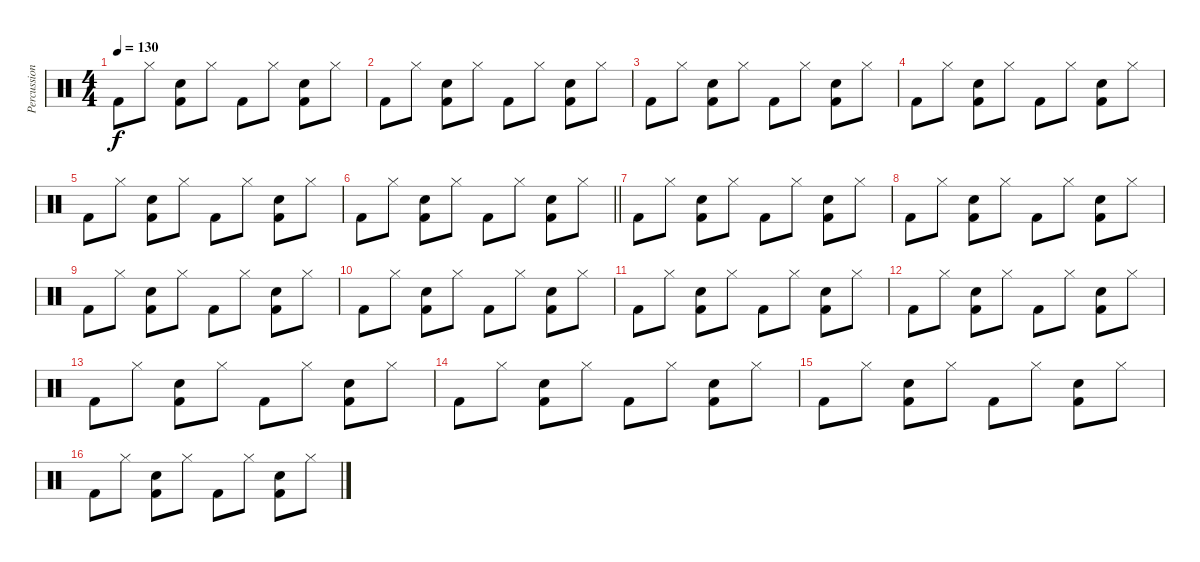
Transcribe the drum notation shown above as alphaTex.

\track ("Percussion" "Percussion") {instrument percussion}
\staff {score}
\articulation defaults
\ts (4 4)
\tempo 130
\clef neutral
\ks c "Kick (hit) 2".8{dy f} "Hi-Hat (closed)".8
("Electric Snare (hit)" "Kick (hit) 2").8 "Hi-Hat (closed)".8 "Kick (hit) 2".8 "Hi-Hat (closed)".8 ("Electric Snare (hit)" "Kick (hit) 2").8 "Hi-Hat (closed)".8 |
"Kick (hit) 2".8 "Hi-Hat (closed)".8 ("Electric Snare (hit)" "Kick (hit) 2").8 "Hi-Hat (closed)".8 "Kick (hit) 2".8 "Hi-Hat (closed)".8 ("Electric Snare (hit)" "Kick (hit) 2").8 "Hi-Hat (closed)".8 |
"Kick (hit) 2".8 "Hi-Hat (closed)".8 ("Electric Snare (hit)" "Kick (hit) 2").8 "Hi-Hat (closed)".8 "Kick (hit) 2".8 "Hi-Hat (closed)".8 ("Electric Snare (hit)" "Kick (hit) 2").8 "Hi-Hat (closed)".8 |
"Kick (hit) 2".8 "Hi-Hat (closed)".8 ("Electric Snare (hit)" "Kick (hit) 2").8 "Hi-Hat (closed)".8 "Kick (hit) 2".8 "Hi-Hat (closed)".8 ("Electric Snare (hit)" "Kick (hit) 2").8 "Hi-Hat (closed)".8 |
"Kick (hit) 2".8 "Hi-Hat (closed)".8 ("Electric Snare (hit)" "Kick (hit) 2").8 "Hi-Hat (closed)".8 "Kick (hit) 2".8 "Hi-Hat (closed)".8 ("Electric Snare (hit)" "Kick (hit) 2").8 "Hi-Hat (closed)".8 |
\barLineRight lightlight "Kick (hit) 2".8 "Hi-Hat (closed)".8
("Electric Snare (hit)" "Kick (hit) 2").8 "Hi-Hat (closed)".8 "Kick (hit) 2".8 "Hi-Hat (closed)".8 ("Electric Snare (hit)" "Kick (hit) 2").8 "Hi-Hat (closed)".8 |
"Kick (hit) 2".8 "Hi-Hat (closed)".8 ("Electric Snare (hit)" "Kick (hit) 2").8 "Hi-Hat (closed)".8 "Kick (hit) 2".8 "Hi-Hat (closed)".8 ("Electric Snare (hit)" "Kick (hit) 2").8 "Hi-Hat (closed)".8 |
"Kick (hit) 2".8 "Hi-Hat (closed)".8 ("Electric Snare (hit)" "Kick (hit) 2").8 "Hi-Hat (closed)".8 "Kick (hit) 2".8 "Hi-Hat (closed)".8 ("Electric Snare (hit)" "Kick (hit) 2").8 "Hi-Hat (closed)".8 |
"Kick (hit) 2".8 "Hi-Hat (closed)".8 ("Electric Snare (hit)" "Kick (hit) 2").8 "Hi-Hat (closed)".8 "Kick (hit) 2".8 "Hi-Hat (closed)".8 ("Electric Snare (hit)" "Kick (hit) 2").8 "Hi-Hat (closed)".8 |
"Kick (hit) 2".8 "Hi-Hat (closed)".8 ("Electric Snare (hit)" "Kick (hit) 2").8 "Hi-Hat (closed)".8 "Kick (hit) 2".8 "Hi-Hat (closed)".8 ("Electric Snare (hit)" "Kick (hit) 2").8 "Hi-Hat (closed)".8 |
"Kick (hit) 2".8 "Hi-Hat (closed)".8 ("Electric Snare (hit)" "Kick (hit) 2").8 "Hi-Hat (closed)".8 "Kick (hit) 2".8 "Hi-Hat (closed)".8 ("Electric Snare (hit)" "Kick (hit) 2").8 "Hi-Hat (closed)".8 |
"Kick (hit) 2".8 "Hi-Hat (closed)".8 ("Electric Snare (hit)" "Kick (hit) 2").8 "Hi-Hat (closed)".8 "Kick (hit) 2".8 "Hi-Hat (closed)".8 ("Electric Snare (hit)" "Kick (hit) 2").8 "Hi-Hat (closed)".8 |
"Kick (hit) 2".8 "Hi-Hat (closed)".8 ("Electric Snare (hit)" "Kick (hit) 2").8 "Hi-Hat (closed)".8 "Kick (hit) 2".8 "Hi-Hat (closed)".8 ("Electric Snare (hit)" "Kick (hit) 2").8 "Hi-Hat (closed)".8 |
"Kick (hit) 2".8 "Hi-Hat (closed)".8 ("Electric Snare (hit)" "Kick (hit) 2").8 "Hi-Hat (closed)".8 "Kick (hit) 2".8 "Hi-Hat (closed)".8 ("Electric Snare (hit)" "Kick (hit) 2").8 "Hi-Hat (closed)".8 |
"Kick (hit) 2".8 "Hi-Hat (closed)".8 ("Electric Snare (hit)" "Kick (hit) 2").8 "Hi-Hat (closed)".8 "Kick (hit) 2".8 "Hi-Hat (closed)".8 ("Electric Snare (hit)" "Kick (hit) 2").8 "Hi-Hat (closed)".8 |
"Kick (hit) 2".8 "Hi-Hat (closed)".8 ("Electric Snare (hit)" "Kick (hit) 2").8 "Hi-Hat (closed)".8 "Kick (hit) 2".8 "Hi-Hat (closed)".8 ("Electric Snare (hit)" "Kick (hit) 2").8 "Hi-Hat (closed)".8
